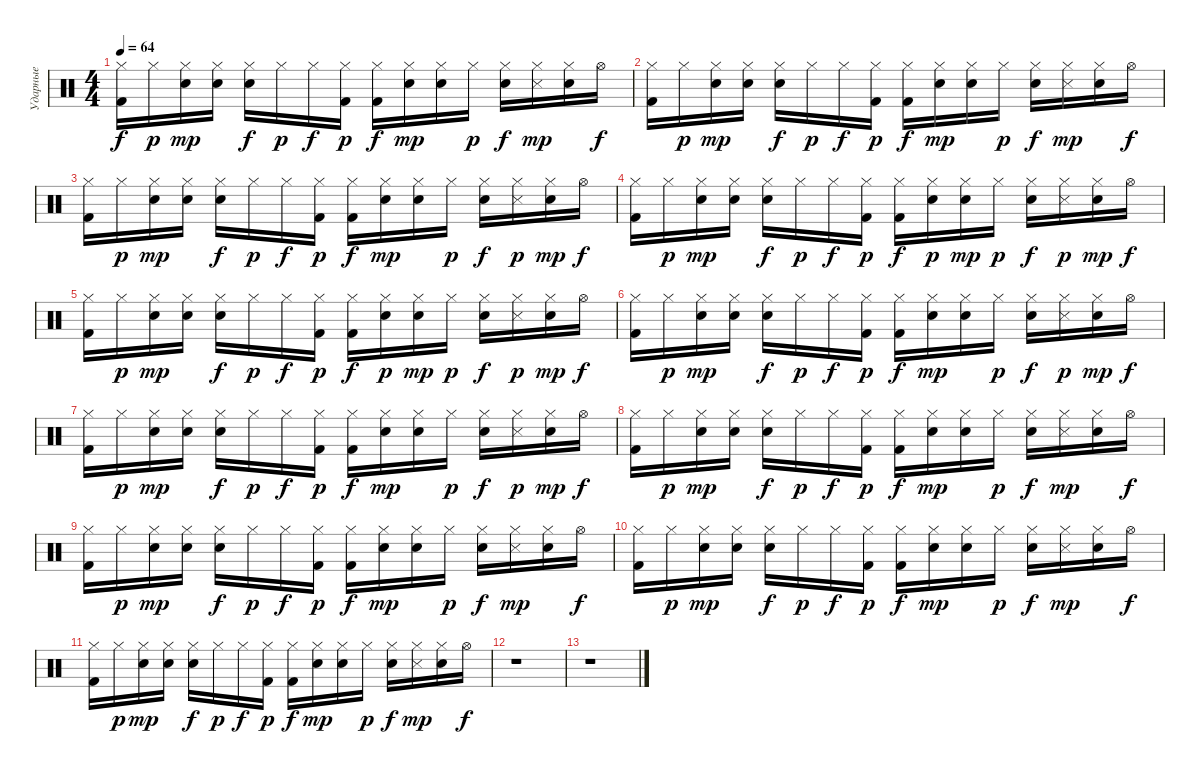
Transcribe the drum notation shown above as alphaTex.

\track ("Ударные" "Ударные") {instrument percussion}
\staff {score}
\articulation defaults
\ts (4 4)
\tempo 64
\clef neutral
\ks c
("Hi-Hat (closed)" "Kick (hit) 2").16{dy f} "Hi-Hat (closed)".16{dy p} ("Hi-Hat (closed)" "Metronome (bell)").16{dy mp} ("Hi-Hat (closed)" "Metronome (bell)").16 ("Hi-Hat (closed)" "Electric Snare (hit)").16{dy f} "Hi-Hat (closed)".16{dy p} "Hi-Hat (closed)".16{dy f} ("Hi-Hat (closed)" "Kick (hit) 2").16{dy p} ("Hi-Hat (closed)" "Kick (hit) 2").16{dy f} ("Hi-Hat (closed)" "Metronome (bell)").16{dy mp} ("Metronome (bell)" "Hi-Hat (closed)").16 "Hi-Hat (closed)".16{dy p} ("Electric Snare (hit)" "Hi-Hat (closed)").16{dy f} ("Hi-Hat (closed)" "Snare (side stick) 3").16{dy mp} ("Hi-Hat (closed)" "Hand Clap (hit)").16 "Hi-Hat (open)".16{dy f} |
("Kick (hit) 2" "Hi-Hat (closed)").16 "Hi-Hat (closed)".16{dy p} ("Hi-Hat (closed)" "Metronome (bell)").16{dy mp} ("Hi-Hat (closed)" "Metronome (bell)").16 ("Hi-Hat (closed)" "Electric Snare (hit)").16{dy f} "Hi-Hat (closed)".16{dy p} "Hi-Hat (closed)".16{dy f} ("Hi-Hat (closed)" "Kick (hit) 2").16{dy p} ("Hi-Hat (closed)" "Kick (hit) 2").16{dy f} ("Hi-Hat (closed)" "Metronome (bell)").16{dy mp} ("Metronome (bell)" "Hi-Hat (closed)").16 "Hi-Hat (closed)".16{dy p} ("Electric Snare (hit)" "Hi-Hat (closed)").16{dy f} ("Hi-Hat (closed)" "Snare (side stick) 3").16{dy mp} ("Hi-Hat (closed)" "Hand Clap (hit)").16 "Hi-Hat (open)".16{dy f} |
("Kick (hit) 2" "Hi-Hat (closed)").16 "Hi-Hat (closed)".16{dy p} ("Hi-Hat (closed)" "Metronome (bell)").16{dy mp} ("Hi-Hat (closed)" "Metronome (bell)").16 ("Hi-Hat (closed)" "Electric Snare (hit)").16{dy f} "Hi-Hat (closed)".16{dy p} "Hi-Hat (closed)".16{dy f} ("Kick (hit) 2" "Hi-Hat (closed)").16{dy p} ("Hi-Hat (closed)" "Kick (hit) 2").16{dy f} ("Hi-Hat (closed)" "Metronome (bell)").16{dy mp} ("Metronome (bell)" "Hi-Hat (closed)").16 "Hi-Hat (closed)".16{dy p} ("Electric Snare (hit)" "Hi-Hat (closed)").16{dy f} ("Snare (side stick) 3" "Hi-Hat (closed)").16{dy p} ("Hi-Hat (closed)" "Hand Clap (hit)").16{dy mp} "Hi-Hat (open)".16{dy f} |
("Hi-Hat (closed)" "Kick (hit) 2").16 "Hi-Hat (closed)".16{dy p} ("Hi-Hat (closed)" "Metronome (bell)").16{dy mp} ("Hi-Hat (closed)" "Metronome (bell)").16 ("Hi-Hat (closed)" "Electric Snare (hit)").16{dy f} "Hi-Hat (closed)".16{dy p} "Hi-Hat (closed)".16{dy f} ("Hi-Hat (closed)" "Kick (hit) 2").16{dy p} ("Hi-Hat (closed)" "Kick (hit) 2").16{dy f} ("Metronome (bell)" "Hi-Hat (closed)").16{dy p} ("Metronome (bell)" "Hi-Hat (closed)").16{dy mp} "Hi-Hat (closed)".16{dy p} ("Electric Snare (hit)" "Hi-Hat (closed)").16{dy f} ("Snare (side stick) 3" "Hi-Hat (closed)").16{dy p} ("Hi-Hat (closed)" "Hand Clap (hit)").16{dy mp} "Hi-Hat (open)".16{dy f} |
("Hi-Hat (closed)" "Kick (hit) 2").16 "Hi-Hat (closed)".16{dy p} ("Hi-Hat (closed)" "Metronome (bell)").16{dy mp} ("Hi-Hat (closed)" "Metronome (bell)").16 ("Electric Snare (hit)" "Hi-Hat (closed)").16{dy f} "Hi-Hat (closed)".16{dy p} "Hi-Hat (closed)".16{dy f} ("Kick (hit) 2" "Hi-Hat (closed)").16{dy p} ("Kick (hit) 2" "Hi-Hat (closed)").16{dy f} ("Metronome (bell)" "Hi-Hat (closed)").16{dy p} ("Hi-Hat (closed)" "Metronome (bell)").16{dy mp} "Hi-Hat (closed)".16{dy p} ("Electric Snare (hit)" "Hi-Hat (closed)").16{dy f} ("Snare (side stick) 3" "Hi-Hat (closed)").16{dy p} ("Hand Clap (hit)" "Hi-Hat (closed)").16{dy mp} "Hi-Hat (open)".16{dy f} |
("Kick (hit) 2" "Hi-Hat (closed)").16 "Hi-Hat (closed)".16{dy p} ("Metronome (bell)" "Hi-Hat (closed)").16{dy mp} ("Hi-Hat (closed)" "Metronome (bell)").16 ("Hi-Hat (closed)" "Electric Snare (hit)").16{dy f} "Hi-Hat (closed)".16{dy p} "Hi-Hat (closed)".16{dy f} ("Hi-Hat (closed)" "Kick (hit) 2").16{dy p} ("Hi-Hat (closed)" "Kick (hit) 2").16{dy f} ("Hi-Hat (closed)" "Metronome (bell)").16{dy mp} ("Hi-Hat (closed)" "Metronome (bell)").16 "Hi-Hat (closed)".16{dy p} ("Electric Snare (hit)" "Hi-Hat (closed)").16{dy f} ("Snare (side stick) 3" "Hi-Hat (closed)").16{dy p} ("Hi-Hat (closed)" "Hand Clap (hit)").16{dy mp} "Hi-Hat (open)".16{dy f} |
("Kick (hit) 2" "Hi-Hat (closed)").16 "Hi-Hat (closed)".16{dy p} ("Hi-Hat (closed)" "Metronome (bell)").16{dy mp} ("Hi-Hat (closed)" "Metronome (bell)").16 ("Hi-Hat (closed)" "Electric Snare (hit)").16{dy f} "Hi-Hat (closed)".16{dy p} "Hi-Hat (closed)".16{dy f} ("Kick (hit) 2" "Hi-Hat (closed)").16{dy p} ("Hi-Hat (closed)" "Kick (hit) 2").16{dy f} ("Hi-Hat (closed)" "Metronome (bell)").16{dy mp} ("Hi-Hat (closed)" "Metronome (bell)").16 "Hi-Hat (closed)".16{dy p} ("Electric Snare (hit)" "Hi-Hat (closed)").16{dy f} ("Snare (side stick) 3" "Hi-Hat (closed)").16{dy p} ("Hi-Hat (closed)" "Hand Clap (hit)").16{dy mp} "Hi-Hat (open)".16{dy f} |
("Hi-Hat (closed)" "Kick (hit) 2").16 "Hi-Hat (closed)".16{dy p} ("Hi-Hat (closed)" "Metronome (bell)").16{dy mp} ("Hi-Hat (closed)" "Metronome (bell)").16 ("Hi-Hat (closed)" "Electric Snare (hit)").16{dy f} "Hi-Hat (closed)".16{dy p} "Hi-Hat (closed)".16{dy f} ("Hi-Hat (closed)" "Kick (hit) 2").16{dy p} ("Hi-Hat (closed)" "Kick (hit) 2").16{dy f} ("Hi-Hat (closed)" "Metronome (bell)").16{dy mp} ("Metronome (bell)" "Hi-Hat (closed)").16 "Hi-Hat (closed)".16{dy p} ("Electric Snare (hit)" "Hi-Hat (closed)").16{dy f} ("Hi-Hat (closed)" "Snare (side stick) 3").16{dy mp} ("Hi-Hat (closed)" "Hand Clap (hit)").16 "Hi-Hat (open)".16{dy f} |
("Hi-Hat (closed)" "Kick (hit) 2").16 "Hi-Hat (closed)".16{dy p} ("Hi-Hat (closed)" "Metronome (bell)").16{dy mp} ("Hi-Hat (closed)" "Metronome (bell)").16 ("Hi-Hat (closed)" "Electric Snare (hit)").16{dy f} "Hi-Hat (closed)".16{dy p} "Hi-Hat (closed)".16{dy f} ("Hi-Hat (closed)" "Kick (hit) 2").16{dy p} ("Hi-Hat (closed)" "Kick (hit) 2").16{dy f} ("Hi-Hat (closed)" "Metronome (bell)").16{dy mp} ("Metronome (bell)" "Hi-Hat (closed)").16 "Hi-Hat (closed)".16{dy p} ("Electric Snare (hit)" "Hi-Hat (closed)").16{dy f} ("Hi-Hat (closed)" "Snare (side stick) 3").16{dy mp} ("Hi-Hat (closed)" "Hand Clap (hit)").16 "Hi-Hat (open)".16{dy f} |
("Hi-Hat (closed)" "Kick (hit) 2").16 "Hi-Hat (closed)".16{dy p} ("Hi-Hat (closed)" "Metronome (bell)").16{dy mp} ("Hi-Hat (closed)" "Metronome (bell)").16 ("Hi-Hat (closed)" "Electric Snare (hit)").16{dy f} "Hi-Hat (closed)".16{dy p} "Hi-Hat (closed)".16{dy f} ("Hi-Hat (closed)" "Kick (hit) 2").16{dy p} ("Hi-Hat (closed)" "Kick (hit) 2").16{dy f} ("Hi-Hat (closed)" "Metronome (bell)").16{dy mp} ("Metronome (bell)" "Hi-Hat (closed)").16 "Hi-Hat (closed)".16{dy p} ("Electric Snare (hit)" "Hi-Hat (closed)").16{dy f} ("Hi-Hat (closed)" "Snare (side stick) 3").16{dy mp} ("Hi-Hat (closed)" "Hand Clap (hit)").16 "Hi-Hat (open)".16{dy f} |
("Hi-Hat (closed)" "Kick (hit) 2").16 "Hi-Hat (closed)".16{dy p} ("Hi-Hat (closed)" "Metronome (bell)").16{dy mp} ("Hi-Hat (closed)" "Metronome (bell)").16 ("Hi-Hat (closed)" "Electric Snare (hit)").16{dy f} "Hi-Hat (closed)".16{dy p} "Hi-Hat (closed)".16{dy f} ("Hi-Hat (closed)" "Kick (hit) 2").16{dy p} ("Hi-Hat (closed)" "Kick (hit) 2").16{dy f} ("Hi-Hat (closed)" "Metronome (bell)").16{dy mp} ("Metronome (bell)" "Hi-Hat (closed)").16 "Hi-Hat (closed)".16{dy p} ("Electric Snare (hit)" "Hi-Hat (closed)").16{dy f} ("Hi-Hat (closed)" "Snare (side stick) 3").16{dy mp} ("Hi-Hat (closed)" "Hand Clap (hit)").16 "Hi-Hat (open)".16{dy f} |
r.1 |
r.1
